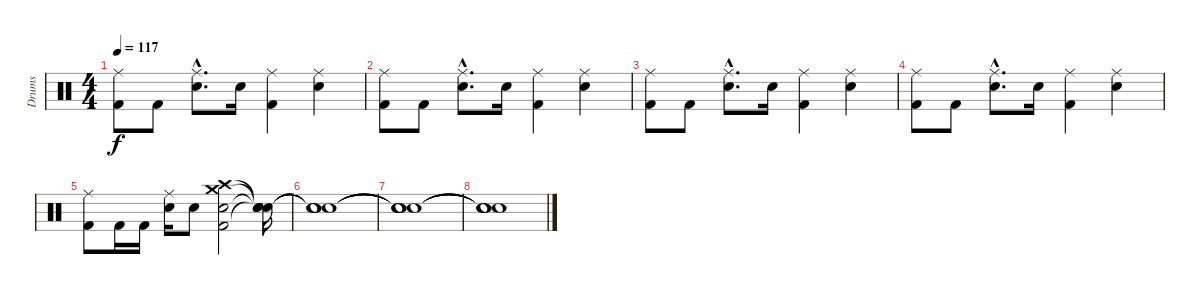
\track ("Drums" "Drums") {instrument percussion}
\staff {score}
\articulation defaults
\ts (4 4)
\tempo 117
\clef neutral
\ks c
("Ride (middle)" "Kick (hit) 2").8{dy f} "Kick (hit) 2".8 ("Ride (middle)"{hac} "Electric Snare (hit)"{hac}).8{d} "Electric Snare (hit)".16 ("Ride (middle)" "Kick (hit) 2").4 ("Ride (middle)" "Electric Snare (hit)").4 |
("Ride (middle)" "Kick (hit) 2").8 "Kick (hit) 2".8 ("Ride (middle)"{hac} "Electric Snare (hit)"{hac}).8{d} "Electric Snare (hit)".16 ("Ride (middle)" "Kick (hit) 2").4 ("Ride (middle)" "Electric Snare (hit)").4 |
("Ride (middle)" "Kick (hit) 2").8 "Kick (hit) 2".8 ("Ride (middle)"{hac} "Electric Snare (hit)"{hac}).8{d} "Electric Snare (hit)".16 ("Ride (middle)" "Kick (hit) 2").4 ("Ride (middle)" "Electric Snare (hit)").4 |
("Ride (middle)" "Kick (hit) 2").8 "Kick (hit) 2".8 ("Ride (middle)"{hac} "Electric Snare (hit)"{hac}).8{d} "Electric Snare (hit)".16 ("Ride (middle)" "Kick (hit) 2").4 ("Ride (middle)" "Electric Snare (hit)").4 |
("Ride (middle)" "Kick (hit) 2").8 "Kick (hit) 2".16 "Kick (hit) 2".16 ("Ride (middle)" "Electric Snare (hit)").16 "Electric Snare (hit)".8 ("Crash medium (hit)" "Crash high (hit)" "Electric Snare (hit)" "Kick (hit) 2").2 ("Snare (hit)"{t} "Snare (hit)"{t} "Snare (hit)"{t} "Snare (hit)"{t}).16 |
("Snare (hit)"{t} "Snare (hit)"{t} "Snare (hit)"{t} "Snare (hit)"{t}).1 |
("Snare (hit)"{t} "Snare (hit)"{t} "Snare (hit)"{t} "Snare (hit)"{t}).1 |
("Snare (hit)"{t} "Snare (hit)"{t} "Snare (hit)"{t} "Snare (hit)"{t}).1
